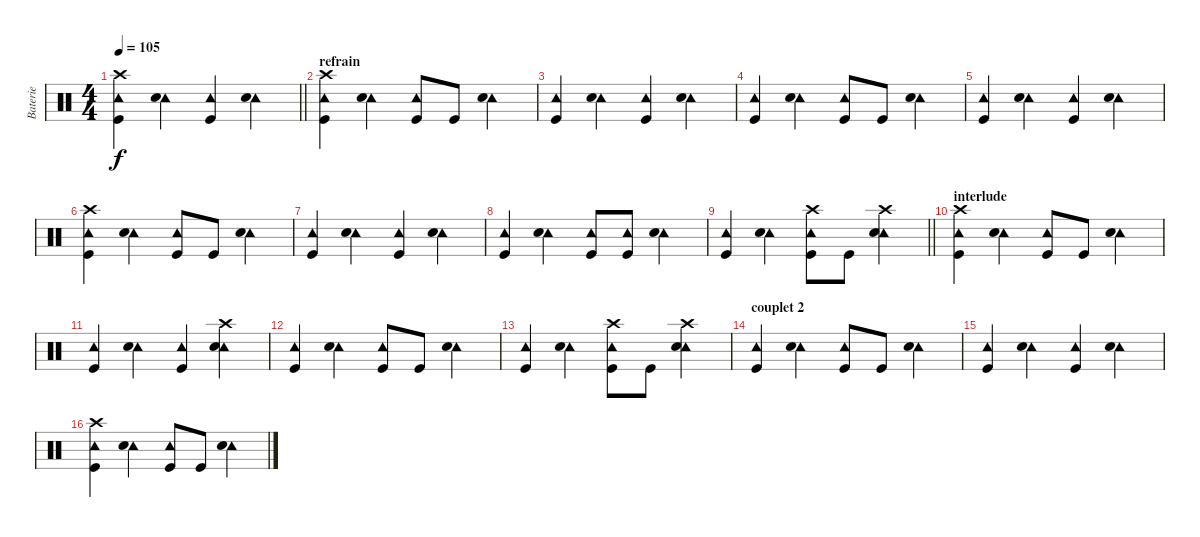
\track ("Baterie" "Baterie") {instrument percussion}
\staff {score}
\articulation defaults
\ts (4 4)
\tempo 105
\clef neutral
\barLineRight lightlight
\ks c
("Tambourine (hit)" "Kick (hit)" "Crash high (hit)").4{dy f} ("Tambourine (hit)" "Snare (hit) 2").4 ("Tambourine (hit)" "Kick (hit)").4 ("Tambourine (hit)" "Snare (hit) 2").4 |
\section ("" "refrain")
("Tambourine (hit)" "Crash high (hit)" "Kick (hit)").4 ("Tambourine (hit)" "Snare (hit) 2").4 ("Tambourine (hit)" "Kick (hit)").8 "Kick (hit)".8 ("Tambourine (hit)" "Snare (hit) 2").4 |
("Tambourine (hit)" "Kick (hit)").4 ("Tambourine (hit)" "Snare (hit) 2").4 ("Tambourine (hit)" "Kick (hit)").4 ("Tambourine (hit)" "Snare (hit) 2").4 |
("Tambourine (hit)" "Kick (hit)").4 ("Tambourine (hit)" "Snare (hit) 2").4 ("Tambourine (hit)" "Kick (hit)").8 "Kick (hit)".8 ("Tambourine (hit)" "Snare (hit) 2").4 |
("Tambourine (hit)" "Kick (hit)").4 ("Tambourine (hit)" "Snare (hit) 2").4 ("Tambourine (hit)" "Kick (hit)").4 ("Tambourine (hit)" "Snare (hit) 2").4 |
("Tambourine (hit)" "Crash high (hit)" "Kick (hit)").4 ("Tambourine (hit)" "Snare (hit) 2").4 ("Tambourine (hit)" "Kick (hit)").8 "Kick (hit)".8 ("Tambourine (hit)" "Snare (hit) 2").4 |
("Tambourine (hit)" "Kick (hit)").4 ("Tambourine (hit)" "Snare (hit) 2").4 ("Tambourine (hit)" "Kick (hit)").4 ("Tambourine (hit)" "Snare (hit) 2").4 |
("Tambourine (hit)" "Kick (hit)").4 ("Tambourine (hit)" "Snare (hit) 2").4 ("Tambourine (hit)" "Kick (hit)").8 ("Tambourine (hit)" "Kick (hit)").8 ("Tambourine (hit)" "Snare (hit) 2").4 |
\barLineRight lightlight
("Tambourine (hit)" "Kick (hit)").4 ("Tambourine (hit)" "Snare (hit) 2").4 ("Tambourine (hit)" "Crash high (hit)" "Kick (hit)").8 "Kick (hit)".8 ("Tambourine (hit)" "Crash high (hit)" "Snare (hit) 2").4 |
\section ("" "interlude")
("Tambourine (hit)" "Crash high (hit)" "Kick (hit)").4 ("Tambourine (hit)" "Snare (hit) 2").4 ("Tambourine (hit)" "Kick (hit)").8 "Kick (hit)".8 ("Tambourine (hit)" "Snare (hit) 2").4 |
("Tambourine (hit)" "Kick (hit)").4 ("Tambourine (hit)" "Snare (hit) 2").4 ("Tambourine (hit)" "Kick (hit)").4 ("Tambourine (hit)" "Crash high (hit)" "Snare (hit) 2").4 |
("Tambourine (hit)" "Kick (hit)").4 ("Tambourine (hit)" "Snare (hit) 2").4 ("Tambourine (hit)" "Kick (hit)").8 "Kick (hit)".8 ("Tambourine (hit)" "Snare (hit) 2").4 |
("Tambourine (hit)" "Kick (hit)").4 ("Tambourine (hit)" "Snare (hit) 2").4 ("Tambourine (hit)" "Crash high (hit)" "Kick (hit)").8 "Kick (hit)".8 ("Tambourine (hit)" "Crash high (hit)" "Snare (hit) 2").4 |
\section ("" "couplet 2")
("Tambourine (hit)" "Kick (hit)").4 ("Tambourine (hit)" "Snare (hit) 2").4 ("Tambourine (hit)" "Kick (hit)").8 "Kick (hit)".8 ("Tambourine (hit)" "Snare (hit) 2").4 |
("Tambourine (hit)" "Kick (hit)").4 ("Tambourine (hit)" "Snare (hit) 2").4 ("Tambourine (hit)" "Kick (hit)").4 ("Tambourine (hit)" "Snare (hit) 2").4 |
("Tambourine (hit)" "Crash high (hit)" "Kick (hit)").4 ("Tambourine (hit)" "Snare (hit) 2").4 ("Tambourine (hit)" "Kick (hit)").8 "Kick (hit)".8 ("Tambourine (hit)" "Snare (hit) 2").4
